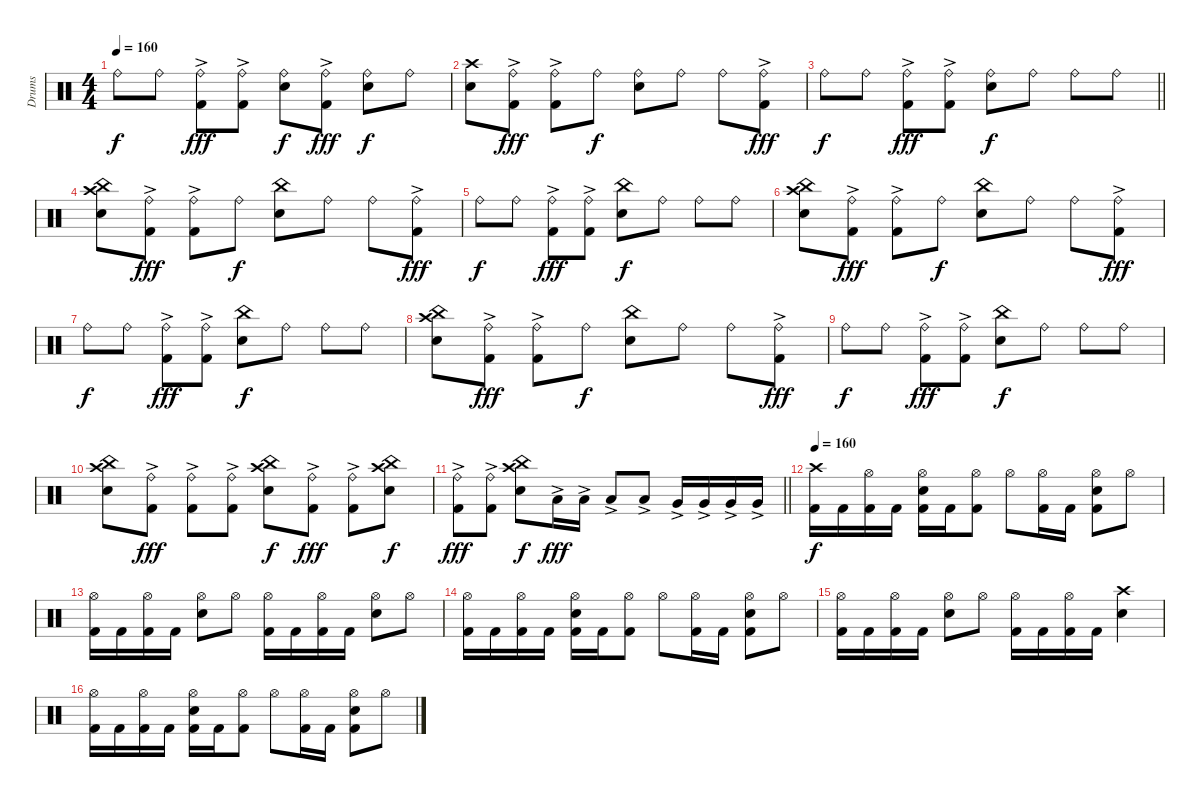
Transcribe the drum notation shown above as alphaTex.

\track ("Drums" "Drums") {instrument percussion}
\staff {score}
\articulation defaults
\ts (4 4)
\tempo 160
\clef neutral
\ks c "Ride (bell)".8{dy f} "Ride (bell)".8
("Ride (bell)" "Kick (hit) 2"{ac}).8{dy fff} ("Ride (bell)" "Kick (hit) 2"{ac}).8 ("Ride (bell)" "Snare (hit) 2").8{dy f} ("Ride (bell)" "Kick (hit) 2"{ac}).8{dy fff} ("Ride (bell)" "Snare (hit) 2").8{dy f} "Ride (bell)".8 |
("Crash high (hit)" "Snare (hit) 2").8 ("Ride (bell)" "Kick (hit) 2"{ac}).8{dy fff} ("Ride (bell)" "Kick (hit) 2"{ac}).8 "Ride (bell)".8{dy f} ("Ride (bell)" "Snare (hit) 2").8 "Ride (bell)".8 "Ride (bell)".8 ("Ride (bell)" "Kick (hit) 2"{ac}).8{dy fff} |
\barLineRight lightlight "Ride (bell)".8{dy f} "Ride (bell)".8
("Ride (bell)" "Kick (hit) 2"{ac}).8{dy fff} ("Ride (bell)" "Kick (hit) 2"{ac}).8 ("Ride (bell)" "Snare (hit) 2").8{dy f} "Ride (bell)".8 "Ride (bell)".8 "Ride (bell)".8 |
("Crash high (hit)" "China (hit)" "Snare (hit) 2").8 ("Ride (bell)" "Kick (hit) 2"{ac}).8{dy fff} ("Ride (bell)" "Kick (hit) 2"{ac}).8 "Ride (bell)".8{dy f} ("China (hit)" "Snare (hit) 2").8 "Ride (bell)".8 "Ride (bell)".8 ("Ride (bell)" "Kick (hit) 2"{ac}).8{dy fff} |
"Ride (bell)".8{dy f} "Ride (bell)".8 ("Ride (bell)" "Kick (hit) 2"{ac}).8{dy fff} ("Ride (bell)" "Kick (hit) 2"{ac}).8 ("China (hit)" "Snare (hit) 2").8{dy f} "Ride (bell)".8 "Ride (bell)".8 "Ride (bell)".8 |
("Crash high (hit)" "China (hit)" "Snare (hit) 2").8 ("Ride (bell)" "Kick (hit) 2"{ac}).8{dy fff} ("Ride (bell)" "Kick (hit) 2"{ac}).8 "Ride (bell)".8{dy f} ("China (hit)" "Snare (hit) 2").8 "Ride (bell)".8 "Ride (bell)".8 ("Ride (bell)" "Kick (hit) 2"{ac}).8{dy fff} |
"Ride (bell)".8{dy f} "Ride (bell)".8 ("Ride (bell)" "Kick (hit) 2"{ac}).8{dy fff} ("Ride (bell)" "Kick (hit) 2"{ac}).8 ("China (hit)" "Snare (hit) 2").8{dy f} "Ride (bell)".8 "Ride (bell)".8 "Ride (bell)".8 |
("Crash high (hit)" "China (hit)" "Snare (hit) 2").8 ("Ride (bell)" "Kick (hit) 2"{ac}).8{dy fff} ("Ride (bell)" "Kick (hit) 2"{ac}).8 "Ride (bell)".8{dy f} ("China (hit)" "Snare (hit) 2").8 "Ride (bell)".8 "Ride (bell)".8 ("Ride (bell)" "Kick (hit) 2"{ac}).8{dy fff} |
"Ride (bell)".8{dy f} "Ride (bell)".8 ("Ride (bell)" "Kick (hit) 2"{ac}).8{dy fff} ("Ride (bell)" "Kick (hit) 2"{ac}).8 ("China (hit)" "Snare (hit) 2").8{dy f} "Ride (bell)".8 "Ride (bell)".8 "Ride (bell)".8 |
("Crash high (hit)" "China (hit)" "Snare (hit) 2").8 ("Ride (bell)" "Kick (hit) 2"{ac}).8{dy fff} ("Ride (bell)" "Kick (hit) 2"{ac}).8 ("Ride (bell)" "Kick (hit) 2"{ac}).8 ("Crash high (hit)" "China (hit)" "Snare (hit) 2").8{dy f} ("Ride (bell)" "Kick (hit) 2"{ac}).8{dy fff} ("Ride (bell)" "Kick (hit) 2"{ac}).8 ("Crash high (hit)" "China (hit)" "Snare (hit) 2").8{dy f} |
\barLineRight lightlight
("Ride (bell)" "Kick (hit) 2"{ac}).8{dy fff} ("Ride (bell)" "Kick (hit) 2"{ac}).8 ("Crash high (hit)" "China (hit)" "Snare (hit) 2").8{dy f} "Low Tom (hit)"{ac}.16{dy fff} "Low Tom (hit)"{ac}.16 "Low Tom (hit)"{ac}.8 "Low Tom (hit)"{ac}.8 "Very Low Tom (hit)"{ac}.16 "Very Low Tom (hit)"{ac}.16 "Very Low Tom (hit)"{ac}.16 "Very Low Tom (hit)"{ac}.16 |
\tempo 160
("Crash high (hit)" "Kick (hit) 2").16{dy f} "Kick (hit) 2".16 ("Hi-Hat (open)" "Kick (hit) 2").16 "Kick (hit) 2".16 ("Hi-Hat (open)" "Snare (hit) 2" "Kick (hit) 2").16 "Kick (hit) 2".16 ("Hi-Hat (open)" "Kick (hit) 2").8 "Hi-Hat (open)".8 ("Hi-Hat (open)" "Kick (hit) 2").16 "Kick (hit) 2".16 ("Hi-Hat (open)" "Snare (hit) 2" "Kick (hit) 2").8 "Hi-Hat (open)".8 |
("Hi-Hat (open)" "Kick (hit) 2").16 "Kick (hit) 2".16 ("Hi-Hat (open)" "Kick (hit) 2").16 "Kick (hit) 2".16 ("Hi-Hat (open)" "Snare (hit) 2").8 "Hi-Hat (open)".8 ("Hi-Hat (open)" "Kick (hit) 2").16 "Kick (hit) 2".16 ("Hi-Hat (open)" "Kick (hit) 2").16 "Kick (hit) 2".16 ("Hi-Hat (open)" "Snare (hit) 2").8 "Hi-Hat (open)".8 |
("Hi-Hat (open)" "Kick (hit) 2").16 "Kick (hit) 2".16 ("Hi-Hat (open)" "Kick (hit) 2").16 "Kick (hit) 2".16 ("Hi-Hat (open)" "Snare (hit) 2" "Kick (hit) 2").16 "Kick (hit) 2".16 ("Hi-Hat (open)" "Kick (hit) 2").8 "Hi-Hat (open)".8 ("Hi-Hat (open)" "Kick (hit) 2").16 "Kick (hit) 2".16 ("Hi-Hat (open)" "Snare (hit) 2" "Kick (hit) 2").8 "Hi-Hat (open)".8 |
("Hi-Hat (open)" "Kick (hit) 2").16 "Kick (hit) 2".16 ("Hi-Hat (open)" "Kick (hit) 2").16 "Kick (hit) 2".16 ("Hi-Hat (open)" "Snare (hit) 2").8 "Hi-Hat (open)".8 ("Hi-Hat (open)" "Kick (hit) 2").16 "Kick (hit) 2".16 ("Hi-Hat (open)" "Kick (hit) 2").16 "Kick (hit) 2".16 ("Crash high (hit)" "Snare (hit) 2").4 |
("Hi-Hat (open)" "Kick (hit) 2").16 "Kick (hit) 2".16 ("Hi-Hat (open)" "Kick (hit) 2").16 "Kick (hit) 2".16 ("Hi-Hat (open)" "Snare (hit) 2" "Kick (hit) 2").16 "Kick (hit) 2".16 ("Hi-Hat (open)" "Kick (hit) 2").8 "Hi-Hat (open)".8 ("Hi-Hat (open)" "Kick (hit) 2").16 "Kick (hit) 2".16 ("Hi-Hat (open)" "Snare (hit) 2" "Kick (hit) 2").8 "Hi-Hat (open)".8
